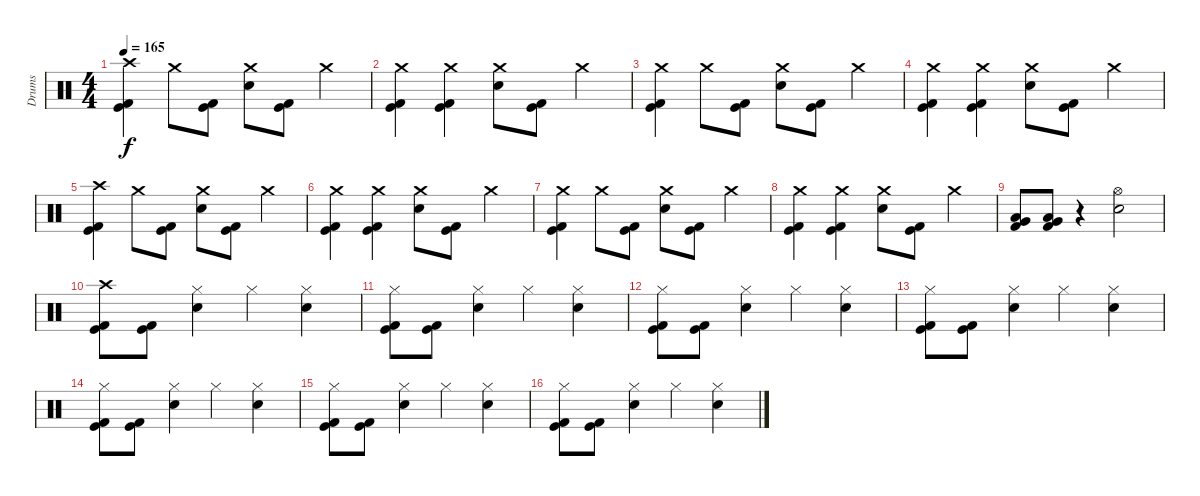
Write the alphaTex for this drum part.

\track ("Drums" "Drums") {instrument percussion}
\staff {score}
\articulation defaults
\ts (4 4)
\tempo 165
\clef neutral
\ks c
("Crash high (hit)" "Kick (hit) 2" "Kick (hit)").4{dy f} "Crash medium (hit)".8 ("Kick (hit)" "Kick (hit) 2").8 ("Crash medium (hit)" "Electric Snare (hit)").8 ("Kick (hit)" "Kick (hit) 2").8 "Crash medium (hit)".4 |
("Crash medium (hit)" "Kick (hit)" "Kick (hit) 2").4 ("Crash medium (hit)" "Kick (hit)" "Kick (hit) 2").4 ("Crash medium (hit)" "Electric Snare (hit)").8 ("Kick (hit)" "Kick (hit) 2").8 "Crash medium (hit)".4 |
("Crash medium (hit)" "Kick (hit) 2" "Kick (hit)").4 "Crash medium (hit)".8 ("Kick (hit)" "Kick (hit) 2").8 ("Crash medium (hit)" "Electric Snare (hit)").8 ("Kick (hit)" "Kick (hit) 2").8 "Crash medium (hit)".4 |
("Crash medium (hit)" "Kick (hit)" "Kick (hit) 2").4 ("Crash medium (hit)" "Kick (hit)" "Kick (hit) 2").4 ("Crash medium (hit)" "Electric Snare (hit)").8 ("Kick (hit)" "Kick (hit) 2").8 "Crash medium (hit)".4 |
("Crash high (hit)" "Kick (hit) 2" "Kick (hit)").4 "Crash medium (hit)".8 ("Kick (hit)" "Kick (hit) 2").8 ("Crash medium (hit)" "Electric Snare (hit)").8 ("Kick (hit)" "Kick (hit) 2").8 "Crash medium (hit)".4 |
("Crash medium (hit)" "Kick (hit)" "Kick (hit) 2").4 ("Crash medium (hit)" "Kick (hit)" "Kick (hit) 2").4 ("Crash medium (hit)" "Electric Snare (hit)").8 ("Kick (hit)" "Kick (hit) 2").8 "Crash medium (hit)".4 |
("Crash medium (hit)" "Kick (hit) 2" "Kick (hit)").4 "Crash medium (hit)".8 ("Kick (hit)" "Kick (hit) 2").8 ("Crash medium (hit)" "Electric Snare (hit)").8 ("Kick (hit)" "Kick (hit) 2").8 "Crash medium (hit)".4 |
("Crash medium (hit)" "Kick (hit)" "Kick (hit) 2").4 ("Crash medium (hit)" "Kick (hit)" "Kick (hit) 2").4 ("Crash medium (hit)" "Electric Snare (hit)").8 ("Kick (hit)" "Kick (hit) 2").8 "Crash medium (hit)".4 |
("Very Low Tom (hit)" "Low Tom (hit)" "Kick (hit) 2").8 ("Low Tom (hit)" "Very Low Tom (hit)" "Kick (hit) 2").8 r.4 ("Hi-Hat (open)" "Electric Snare (hit)").2 |
("Crash high (hit)" "Kick (hit)" "Kick (hit) 2").8 ("Kick (hit)" "Kick (hit) 2").8 ("Hi-Hat (closed)" "Electric Snare (hit)").4 "Hi-Hat (closed)".4 ("Hi-Hat (closed)" "Electric Snare (hit)").4 |
("Hi-Hat (closed)" "Kick (hit)" "Kick (hit) 2").8 ("Kick (hit)" "Kick (hit) 2").8 ("Hi-Hat (closed)" "Electric Snare (hit)").4 "Hi-Hat (closed)".4 ("Hi-Hat (closed)" "Electric Snare (hit)").4 |
("Hi-Hat (closed)" "Kick (hit)" "Kick (hit) 2").8 ("Kick (hit)" "Kick (hit) 2").8 ("Hi-Hat (closed)" "Electric Snare (hit)").4 "Hi-Hat (closed)".4 ("Hi-Hat (closed)" "Electric Snare (hit)").4 |
("Hi-Hat (closed)" "Kick (hit)" "Kick (hit) 2").8 ("Kick (hit)" "Kick (hit) 2").8 ("Hi-Hat (closed)" "Electric Snare (hit)").4 "Hi-Hat (closed)".4 ("Hi-Hat (closed)" "Electric Snare (hit)").4 |
("Hi-Hat (closed)" "Kick (hit)" "Kick (hit) 2").8 ("Kick (hit)" "Kick (hit) 2").8 ("Hi-Hat (closed)" "Electric Snare (hit)").4 "Hi-Hat (closed)".4 ("Hi-Hat (closed)" "Electric Snare (hit)").4 |
("Hi-Hat (closed)" "Kick (hit)" "Kick (hit) 2").8 ("Kick (hit)" "Kick (hit) 2").8 ("Hi-Hat (closed)" "Electric Snare (hit)").4 "Hi-Hat (closed)".4 ("Hi-Hat (closed)" "Electric Snare (hit)").4 |
("Hi-Hat (closed)" "Kick (hit)" "Kick (hit) 2").8 ("Kick (hit)" "Kick (hit) 2").8 ("Hi-Hat (closed)" "Electric Snare (hit)").4 "Hi-Hat (closed)".4 ("Hi-Hat (closed)" "Electric Snare (hit)").4
